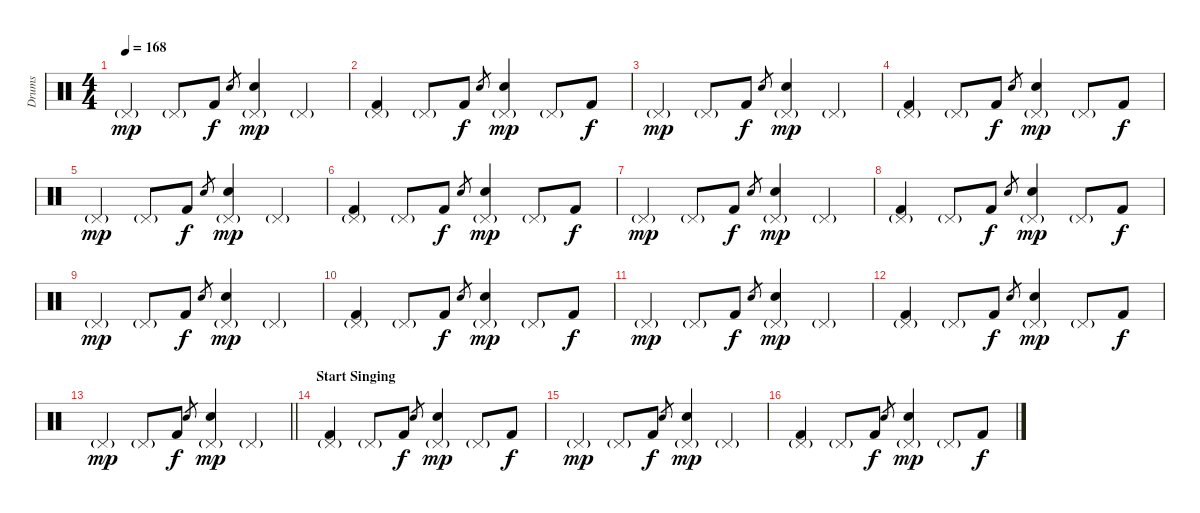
\track ("Drums" "Drums") {instrument percussion}
\staff {score}
\articulation defaults
\ts (4 4)
\tempo 168
\clef neutral
\ks c "Pedal Hi-Hat (hit)"{g}.4{dy mp} "Pedal Hi-Hat (hit)"{g}.8 "Kick (hit) 2".8{dy f} "Snare (hit) 2".8{gr}
("Pedal Hi-Hat (hit)"{g} "Snare (hit) 2").4{dy mp} "Pedal Hi-Hat (hit)"{g}.4 |
("Pedal Hi-Hat (hit)"{g} "Kick (hit) 2").4 "Pedal Hi-Hat (hit)"{g}.8 "Kick (hit) 2".8{dy f} "Snare (hit) 2".8{gr} ("Pedal Hi-Hat (hit)"{g} "Snare (hit) 2").4{dy mp} "Pedal Hi-Hat (hit)"{g}.8 "Kick (hit) 2".8{dy f} |
"Pedal Hi-Hat (hit)"{g}.4{dy mp} "Pedal Hi-Hat (hit)"{g}.8 "Kick (hit) 2".8{dy f} "Snare (hit) 2".8{gr} ("Pedal Hi-Hat (hit)"{g} "Snare (hit) 2").4{dy mp} "Pedal Hi-Hat (hit)"{g}.4 |
("Pedal Hi-Hat (hit)"{g} "Kick (hit) 2").4 "Pedal Hi-Hat (hit)"{g}.8 "Kick (hit) 2".8{dy f} "Snare (hit) 2".8{gr} ("Pedal Hi-Hat (hit)"{g} "Snare (hit) 2").4{dy mp} "Pedal Hi-Hat (hit)"{g}.8 "Kick (hit) 2".8{dy f} |
"Pedal Hi-Hat (hit)"{g}.4{dy mp} "Pedal Hi-Hat (hit)"{g}.8 "Kick (hit) 2".8{dy f} "Snare (hit) 2".8{gr} ("Pedal Hi-Hat (hit)"{g} "Snare (hit) 2").4{dy mp} "Pedal Hi-Hat (hit)"{g}.4 |
("Pedal Hi-Hat (hit)"{g} "Kick (hit) 2").4 "Pedal Hi-Hat (hit)"{g}.8 "Kick (hit) 2".8{dy f} "Snare (hit) 2".8{gr} ("Pedal Hi-Hat (hit)"{g} "Snare (hit) 2").4{dy mp} "Pedal Hi-Hat (hit)"{g}.8 "Kick (hit) 2".8{dy f} |
"Pedal Hi-Hat (hit)"{g}.4{dy mp} "Pedal Hi-Hat (hit)"{g}.8 "Kick (hit) 2".8{dy f} "Snare (hit) 2".8{gr} ("Pedal Hi-Hat (hit)"{g} "Snare (hit) 2").4{dy mp} "Pedal Hi-Hat (hit)"{g}.4 |
("Pedal Hi-Hat (hit)"{g} "Kick (hit) 2").4 "Pedal Hi-Hat (hit)"{g}.8 "Kick (hit) 2".8{dy f} "Snare (hit) 2".8{gr} ("Pedal Hi-Hat (hit)"{g} "Snare (hit) 2").4{dy mp} "Pedal Hi-Hat (hit)"{g}.8 "Kick (hit) 2".8{dy f} |
"Pedal Hi-Hat (hit)"{g}.4{dy mp} "Pedal Hi-Hat (hit)"{g}.8 "Kick (hit) 2".8{dy f} "Snare (hit) 2".8{gr} ("Pedal Hi-Hat (hit)"{g} "Snare (hit) 2").4{dy mp} "Pedal Hi-Hat (hit)"{g}.4 |
("Pedal Hi-Hat (hit)"{g} "Kick (hit) 2").4 "Pedal Hi-Hat (hit)"{g}.8 "Kick (hit) 2".8{dy f} "Snare (hit) 2".8{gr} ("Pedal Hi-Hat (hit)"{g} "Snare (hit) 2").4{dy mp} "Pedal Hi-Hat (hit)"{g}.8 "Kick (hit) 2".8{dy f} |
"Pedal Hi-Hat (hit)"{g}.4{dy mp} "Pedal Hi-Hat (hit)"{g}.8 "Kick (hit) 2".8{dy f} "Snare (hit) 2".8{gr} ("Pedal Hi-Hat (hit)"{g} "Snare (hit) 2").4{dy mp} "Pedal Hi-Hat (hit)"{g}.4 |
("Pedal Hi-Hat (hit)"{g} "Kick (hit) 2").4 "Pedal Hi-Hat (hit)"{g}.8 "Kick (hit) 2".8{dy f} "Snare (hit) 2".8{gr} ("Pedal Hi-Hat (hit)"{g} "Snare (hit) 2").4{dy mp} "Pedal Hi-Hat (hit)"{g}.8 "Kick (hit) 2".8{dy f} |
\barLineRight lightlight "Pedal Hi-Hat (hit)"{g}.4{dy mp} "Pedal Hi-Hat (hit)"{g}.8 "Kick (hit) 2".8{dy f} "Snare (hit) 2".8{gr}
("Pedal Hi-Hat (hit)"{g} "Snare (hit) 2").4{dy mp} "Pedal Hi-Hat (hit)"{g}.4 |
\section ("" "Start Singing")
("Pedal Hi-Hat (hit)"{g} "Kick (hit) 2").4 "Pedal Hi-Hat (hit)"{g}.8 "Kick (hit) 2".8{dy f} "Snare (hit) 2".8{gr} ("Pedal Hi-Hat (hit)"{g} "Snare (hit) 2").4{dy mp} "Pedal Hi-Hat (hit)"{g}.8 "Kick (hit) 2".8{dy f} |
"Pedal Hi-Hat (hit)"{g}.4{dy mp} "Pedal Hi-Hat (hit)"{g}.8 "Kick (hit) 2".8{dy f} "Snare (hit) 2".8{gr} ("Pedal Hi-Hat (hit)"{g} "Snare (hit) 2").4{dy mp} "Pedal Hi-Hat (hit)"{g}.4 |
("Pedal Hi-Hat (hit)"{g} "Kick (hit) 2").4 "Pedal Hi-Hat (hit)"{g}.8 "Kick (hit) 2".8{dy f} "Snare (hit) 2".8{gr} ("Pedal Hi-Hat (hit)"{g} "Snare (hit) 2").4{dy mp} "Pedal Hi-Hat (hit)"{g}.8 "Kick (hit) 2".8{dy f}
